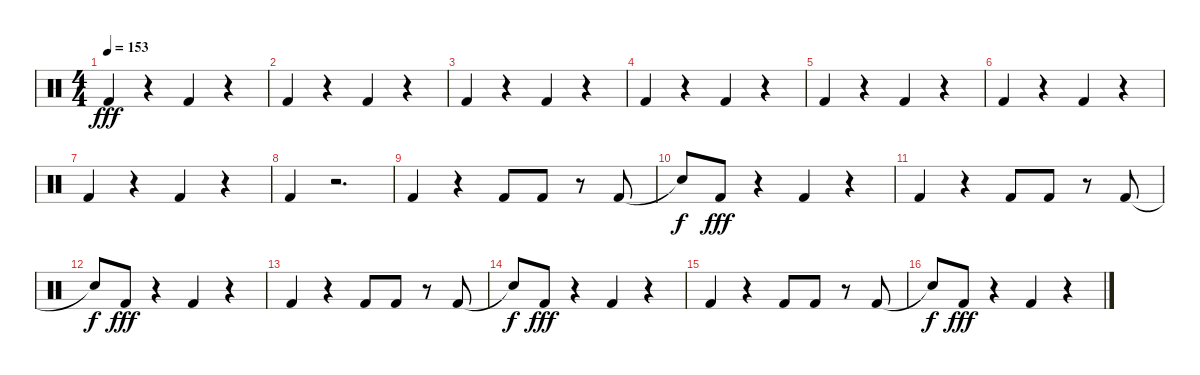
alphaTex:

\track "" {instrument percussion}
\staff {score}
\articulation defaults
\ts (4 4)
\tempo 153
\clef neutral
\ks c "Kick (hit) 2".4{dy fff}
r.4 "Kick (hit) 2".4 r.4 |
"Kick (hit) 2".4 r.4 "Kick (hit) 2".4 r.4 |
"Kick (hit) 2".4 r.4 "Kick (hit) 2".4 r.4 |
"Kick (hit) 2".4 r.4 "Kick (hit) 2".4 r.4 |
"Kick (hit) 2".4 r.4 "Kick (hit) 2".4 r.4 |
"Kick (hit) 2".4 r.4 "Kick (hit) 2".4 r.4 |
"Kick (hit) 2".4 r.4 "Kick (hit) 2".4 r.4 |
"Kick (hit) 2".4 r.2{d} |
"Kick (hit) 2".4 r.4 "Kick (hit) 2".8 "Kick (hit) 2".8 r.8 "Kick (hit) 2".8 |
"Snare (hit)"{t}.8{dy f} "Kick (hit) 2".8{dy fff} r.4 "Kick (hit) 2".4 r.4 |
"Kick (hit) 2".4 r.4 "Kick (hit) 2".8 "Kick (hit) 2".8 r.8 "Kick (hit) 2".8 |
"Snare (hit)"{t}.8{dy f} "Kick (hit) 2".8{dy fff} r.4 "Kick (hit) 2".4 r.4 |
"Kick (hit) 2".4 r.4 "Kick (hit) 2".8 "Kick (hit) 2".8 r.8 "Kick (hit) 2".8 |
"Snare (hit)"{t}.8{dy f} "Kick (hit) 2".8{dy fff} r.4 "Kick (hit) 2".4 r.4 |
"Kick (hit) 2".4 r.4 "Kick (hit) 2".8 "Kick (hit) 2".8 r.8 "Kick (hit) 2".8 |
"Snare (hit)"{t}.8{dy f} "Kick (hit) 2".8{dy fff} r.4 "Kick (hit) 2".4 r.4
